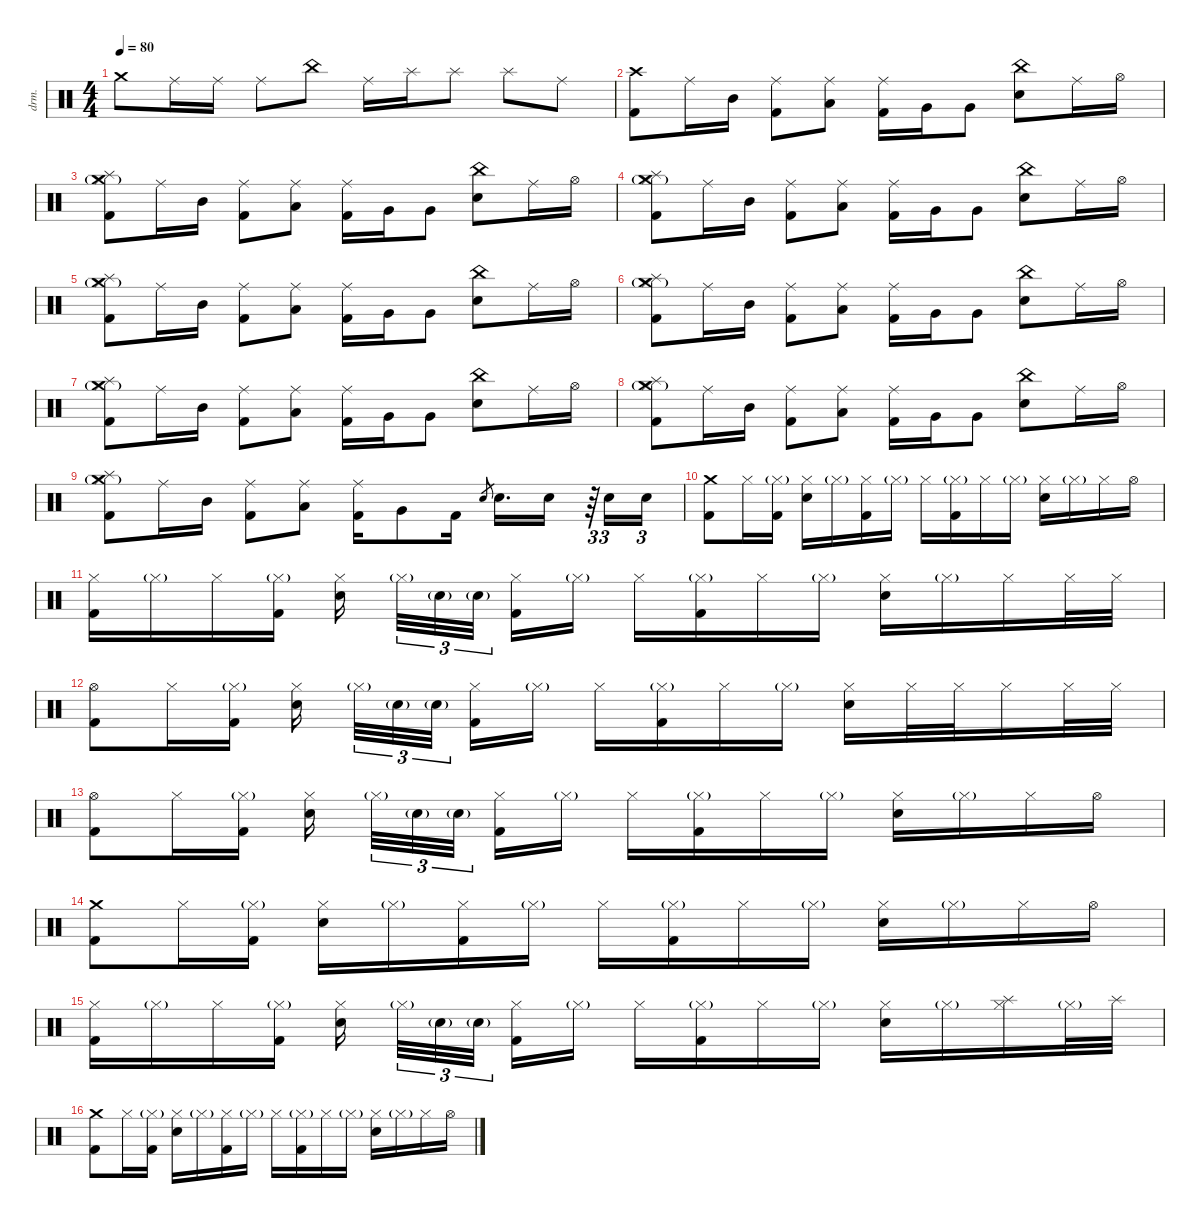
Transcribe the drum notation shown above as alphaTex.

\defaultSystemsLayout 4
\hideDynamics
\bracketExtendMode nobrackets
\otherSystemsTrackNameOrientation horizontal
\track ("Percussions" "drm.") {instrument percussion}
\staff {score}
\articulation defaults
\ts (4 4)
\tempo 80
\clef neutral
\ks c "Crash medium (hit)".8{dy fff beam Down} "Ride (middle)".16{dy f beam Down} "Ride (middle)".16{beam Down} "Ride (middle)".8{beam Down} "China (hit)".8{dy fff beam Down} "Ride (middle)".16{dy f beam Down} "Splash (hit)".16{dy fff beam Down} "Splash (hit)".8{beam Down} "Splash (hit)".8{beam Down} "Ride (middle)".8{dy f beam Down}
|
("Crash high (hit)" "Kick (hit) 2").8{dy fff beam Down} "Ride (middle)".16{dy mf beam Down} "Mid Tom (hit)".16{dy fff beam Down} ("Kick (hit) 2" "Ride (middle)").8{dy f beam Down} ("Low Tom (hit)" "Ride (middle)").8{dy fff beam Down} ("Kick (hit) 2" "Ride (middle)").16{dy f beam Down} "Very Low Tom (hit)".16{dy fff beam Down} "Very Low Tom (hit)".8{beam Down} ("China (hit)" "Snare (hit) 2").8{beam Down} "Ride (middle)".16{dy mf beam Down} "Hi-Hat (open)".16{dy fff beam Down} |
("Splash (hit)" "Crash medium (hit)" "Hi-Hat (closed)"{g} "Kick (hit) 2").8{beam Down} "Ride (middle)".16{dy mf beam Down} "Mid Tom (hit)".16{dy fff beam Down} ("Kick (hit) 2" "Ride (middle)").8{dy f beam Down} ("Low Tom (hit)" "Ride (middle)").8{dy fff beam Down} ("Kick (hit) 2" "Ride (middle)").16{dy f beam Down} "Very Low Tom (hit)".16{dy fff beam Down} "Very Low Tom (hit)".8{beam Down} ("China (hit)" "Snare (hit) 2").8{beam Down} "Ride (middle)".16{dy mf beam Down} "Hi-Hat (open)".16{dy fff beam Down} |
("Crash medium (hit)" "Splash (hit)" "Hi-Hat (closed)"{g} "Kick (hit) 2").8{beam Down} "Ride (middle)".16{dy mf beam Down} "Mid Tom (hit)".16{dy fff beam Down} ("Kick (hit) 2" "Ride (middle)").8{dy f beam Down} ("Low Tom (hit)" "Ride (middle)").8{dy fff beam Down} ("Kick (hit) 2" "Ride (middle)").16{dy f beam Down} "Very Low Tom (hit)".16{dy fff beam Down} "Very Low Tom (hit)".8{beam Down} ("China (hit)" "Snare (hit) 2").8{beam Down} "Ride (middle)".16{dy mf beam Down} "Hi-Hat (open)".16{dy fff beam Down} |
("Crash medium (hit)" "Splash (hit)" "Hi-Hat (closed)"{g} "Kick (hit) 2").8{beam Down} "Ride (middle)".16{dy mf beam Down} "Mid Tom (hit)".16{dy fff beam Down} ("Kick (hit) 2" "Ride (middle)").8{dy f beam Down} ("Low Tom (hit)" "Ride (middle)").8{dy fff beam Down} ("Kick (hit) 2" "Ride (middle)").16{dy f beam Down} "Very Low Tom (hit)".16{dy fff beam Down} "Very Low Tom (hit)".8{beam Down} ("China (hit)" "Snare (hit) 2").8{beam Down} "Ride (middle)".16{dy mf beam Down} "Hi-Hat (open)".16{dy fff beam Down} |
("Crash medium (hit)" "Splash (hit)" "Hi-Hat (closed)"{g} "Kick (hit) 2").8{beam Down} "Ride (middle)".16{dy mf beam Down} "Mid Tom (hit)".16{dy fff beam Down} ("Kick (hit) 2" "Ride (middle)").8{dy f beam Down} ("Low Tom (hit)" "Ride (middle)").8{dy fff beam Down} ("Kick (hit) 2" "Ride (middle)").16{dy f beam Down} "Very Low Tom (hit)".16{dy fff beam Down} "Very Low Tom (hit)".8{beam Down} ("China (hit)" "Snare (hit) 2").8{beam Down} "Ride (middle)".16{dy mf beam Down} "Hi-Hat (open)".16{dy fff beam Down} |
("Crash medium (hit)" "Splash (hit)" "Hi-Hat (closed)"{g} "Kick (hit) 2").8{beam Down} "Ride (middle)".16{dy mf beam Down} "Mid Tom (hit)".16{dy fff beam Down} ("Kick (hit) 2" "Ride (middle)").8{dy f beam Down} ("Low Tom (hit)" "Ride (middle)").8{dy fff beam Down} ("Kick (hit) 2" "Ride (middle)").16{dy f beam Down} "Very Low Tom (hit)".16{dy fff beam Down} "Very Low Tom (hit)".8{beam Down} ("China (hit)" "Snare (hit) 2").8{beam Down} "Ride (middle)".16{dy mf beam Down} "Hi-Hat (open)".16{dy fff beam Down} |
("Crash medium (hit)" "Splash (hit)" "Hi-Hat (closed)"{g} "Kick (hit) 2").8{beam Down} "Ride (middle)".16{dy mf beam Down} "Mid Tom (hit)".16{dy fff beam Down} ("Kick (hit) 2" "Ride (middle)").8{dy f beam Down} ("Low Tom (hit)" "Ride (middle)").8{dy fff beam Down} ("Kick (hit) 2" "Ride (middle)").16{dy f beam Down} "Very Low Tom (hit)".16{dy fff beam Down} "Very Low Tom (hit)".8{beam Down} ("China (hit)" "Snare (hit) 2").8{beam Down} "Ride (middle)".16{dy mf beam Down} "Hi-Hat (open)".16{dy fff beam Down} |
("Crash medium (hit)" "Splash (hit)" "Hi-Hat (closed)"{g} "Kick (hit) 2").8{beam Down} "Ride (middle)".16{dy mf beam Down} "Mid Tom (hit)".16{dy fff beam Down} ("Kick (hit) 2" "Ride (middle)").8{dy f beam Down} ("Low Tom (hit)" "Ride (middle)").8{dy fff beam Down} ("Kick (hit) 2" "Ride (middle)").16{dy f beam Down} "Very Low Tom (hit)".8{dy fff beam Down} "Kick (hit) 2".16{beam Down} "Electric Snare (hit)".8{gr dy ff beam Up} "Snare (hit) 2".16{d dy fff beam Down} "Snare (hit) 2".16{beam Down} r.64{tu (3 2) beam Down} "Snare (hit) 2".16{tu (3 2) beam Down} "Snare (hit) 2".16{tu (3 2) beam Down} |
("Crash medium (hit)" "Kick (hit) 2").8{dy f beam Down} "Hi-Hat (closed)".16{beam Down} ("Kick (hit) 2" "Hi-Hat (closed)"{g}).16{beam Down} ("Snare (hit) 2" "Hi-Hat (closed)").16{beam Down} "Hi-Hat (closed)"{g}.16{dy mf beam Down} ("Kick (hit) 2" "Hi-Hat (closed)").16{dy f beam Down} "Hi-Hat (closed)"{g}.16{dy mf beam Down} "Hi-Hat (closed)".16{dy f beam Down} ("Kick (hit) 2" "Hi-Hat (closed)"{g}).16{beam Down} "Hi-Hat (closed)".16{beam Down} "Hi-Hat (closed)"{g}.16{dy mf beam Down} ("Snare (hit) 2" "Hi-Hat (closed)").16{dy f beam Down} "Hi-Hat (closed)"{g}.16{dy mf beam Down} "Hi-Hat (closed)".16{dy f beam Down} "Hi-Hat (open)".16{beam Down} |
("Kick (hit) 2" "Hi-Hat (closed)").16{beam Down} "Hi-Hat (closed)"{g}.16{dy mf beam Down} "Hi-Hat (closed)".16{dy f beam Down} ("Kick (hit) 2" "Hi-Hat (closed)"{g}).16{beam Down} ("Snare (hit) 2" "Hi-Hat (closed)").16{beam Down} "Hi-Hat (closed)"{g}.32{tu (3 2) dy mf beam Down} "Snare (hit) 2"{g}.32{tu (3 2) beam Down} "Snare (hit) 2"{g}.32{tu (3 2) beam Down} ("Kick (hit) 2" "Hi-Hat (closed)").16{dy f beam Down} "Hi-Hat (closed)"{g}.16{dy mf beam Down} "Hi-Hat (closed)".16{dy f beam Down} ("Kick (hit) 2" "Hi-Hat (closed)"{g}).16{beam Down} "Hi-Hat (closed)".16{beam Down} "Hi-Hat (closed)"{g}.16{dy mf beam Down} ("Snare (hit) 2" "Hi-Hat (closed)").16{dy f beam Down} "Hi-Hat (closed)"{g}.16{dy mf beam Down} "Hi-Hat (closed)".16{dy f beam Down} "Hi-Hat (closed)".32{beam Down} "Hi-Hat (closed)".32{beam Down} |
("Kick (hit) 2" "Hi-Hat (open)").8{beam Down} "Hi-Hat (closed)".16{beam Down} ("Kick (hit) 2" "Hi-Hat (closed)"{g}).16{beam Down} ("Snare (hit) 2" "Hi-Hat (closed)").16{beam Down} "Hi-Hat (closed)"{g}.32{tu (3 2) dy mf beam Down} "Snare (hit) 2"{g}.32{tu (3 2) beam Down} "Snare (hit) 2"{g}.32{tu (3 2) beam Down} ("Kick (hit) 2" "Hi-Hat (closed)").16{dy f beam Down} "Hi-Hat (closed)"{g}.16{dy mf beam Down} "Hi-Hat (closed)".16{dy f beam Down} ("Kick (hit) 2" "Hi-Hat (closed)"{g}).16{beam Down} "Hi-Hat (closed)".16{beam Down} "Hi-Hat (closed)"{g}.16{dy mf beam Down} ("Snare (hit) 2" "Hi-Hat (closed)").16{dy f beam Down} "Hi-Hat (closed)".32{beam Down} "Hi-Hat (closed)".32{beam Down} "Hi-Hat (closed)".16{beam Down} "Hi-Hat (closed)".32{beam Down} "Hi-Hat (closed)".32{beam Down} |
("Kick (hit) 2" "Hi-Hat (open)").8{beam Down} "Hi-Hat (closed)".16{beam Down} ("Kick (hit) 2" "Hi-Hat (closed)"{g}).16{beam Down} ("Snare (hit) 2" "Hi-Hat (closed)").16{beam Down} "Hi-Hat (closed)"{g}.32{tu (3 2) dy mf beam Down} "Snare (hit) 2"{g}.32{tu (3 2) beam Down} "Snare (hit) 2"{g}.32{tu (3 2) beam Down} ("Kick (hit) 2" "Hi-Hat (closed)").16{dy f beam Down} "Hi-Hat (closed)"{g}.16{dy mf beam Down} "Hi-Hat (closed)".16{dy f beam Down} ("Kick (hit) 2" "Hi-Hat (closed)"{g}).16{beam Down} "Hi-Hat (closed)".16{beam Down} "Hi-Hat (closed)"{g}.16{dy mf beam Down} ("Snare (hit) 2" "Hi-Hat (closed)").16{dy f beam Down} "Hi-Hat (closed)"{g}.16{dy mf beam Down} "Hi-Hat (closed)".16{dy f beam Down} "Hi-Hat (open)".16{beam Down} |
("Crash medium (hit)" "Kick (hit) 2").8{beam Down} "Hi-Hat (closed)".16{beam Down} ("Kick (hit) 2" "Hi-Hat (closed)"{g}).16{beam Down} ("Snare (hit) 2" "Hi-Hat (closed)").16{beam Down} "Hi-Hat (closed)"{g}.16{dy mf beam Down} ("Kick (hit) 2" "Hi-Hat (closed)").16{dy f beam Down} "Hi-Hat (closed)"{g}.16{dy mf beam Down} "Hi-Hat (closed)".16{dy f beam Down} ("Kick (hit) 2" "Hi-Hat (closed)"{g}).16{beam Down} "Hi-Hat (closed)".16{beam Down} "Hi-Hat (closed)"{g}.16{dy mf beam Down} ("Snare (hit) 2" "Hi-Hat (closed)").16{dy f beam Down} "Hi-Hat (closed)"{g}.16{dy mf beam Down} "Hi-Hat (closed)".16{dy f beam Down} "Hi-Hat (open)".16{beam Down} |
("Kick (hit) 2" "Hi-Hat (closed)").16{beam Down} "Hi-Hat (closed)"{g}.16{dy mf beam Down} "Hi-Hat (closed)".16{dy f beam Down} ("Kick (hit) 2" "Hi-Hat (closed)"{g}).16{beam Down} ("Snare (hit) 2" "Hi-Hat (closed)").16{beam Down} "Hi-Hat (closed)"{g}.32{tu (3 2) dy mf beam Down} "Snare (hit) 2"{g}.32{tu (3 2) beam Down} "Snare (hit) 2"{g}.32{tu (3 2) beam Down} ("Kick (hit) 2" "Hi-Hat (closed)").16{dy f beam Down} "Hi-Hat (closed)"{g}.16{dy mf beam Down} "Hi-Hat (closed)".16{dy f beam Down} ("Kick (hit) 2" "Hi-Hat (closed)"{g}).16{beam Down} "Hi-Hat (closed)".16{beam Down} "Hi-Hat (closed)"{g}.16{dy mf beam Down} ("Snare (hit) 2" "Hi-Hat (closed)").16{dy f beam Down} "Hi-Hat (closed)"{g}.16{dy mf beam Down} ("Splash (hit)" "Hi-Hat (closed)").16{dy fff beam Down} "Hi-Hat (closed)"{g}.32{dy ff beam Down} "Splash (hit)".32{dy fff beam Down} |
("Crash medium (hit)" "Kick (hit) 2").8{dy f beam Down} "Hi-Hat (closed)".16{beam Down} ("Kick (hit) 2" "Hi-Hat (closed)"{g}).16{beam Down} ("Snare (hit) 2" "Hi-Hat (closed)").16{beam Down} "Hi-Hat (closed)"{g}.16{dy mf beam Down} ("Kick (hit) 2" "Hi-Hat (closed)").16{dy f beam Down} "Hi-Hat (closed)"{g}.16{dy mf beam Down} "Hi-Hat (closed)".16{dy f beam Down} ("Kick (hit) 2" "Hi-Hat (closed)"{g}).16{beam Down} "Hi-Hat (closed)".16{beam Down} "Hi-Hat (closed)"{g}.16{dy mf beam Down} ("Snare (hit) 2" "Hi-Hat (closed)").16{dy f beam Down} "Hi-Hat (closed)"{g}.16{dy mf beam Down} "Hi-Hat (closed)".16{dy f beam Down} "Hi-Hat (open)".16{beam Down}
